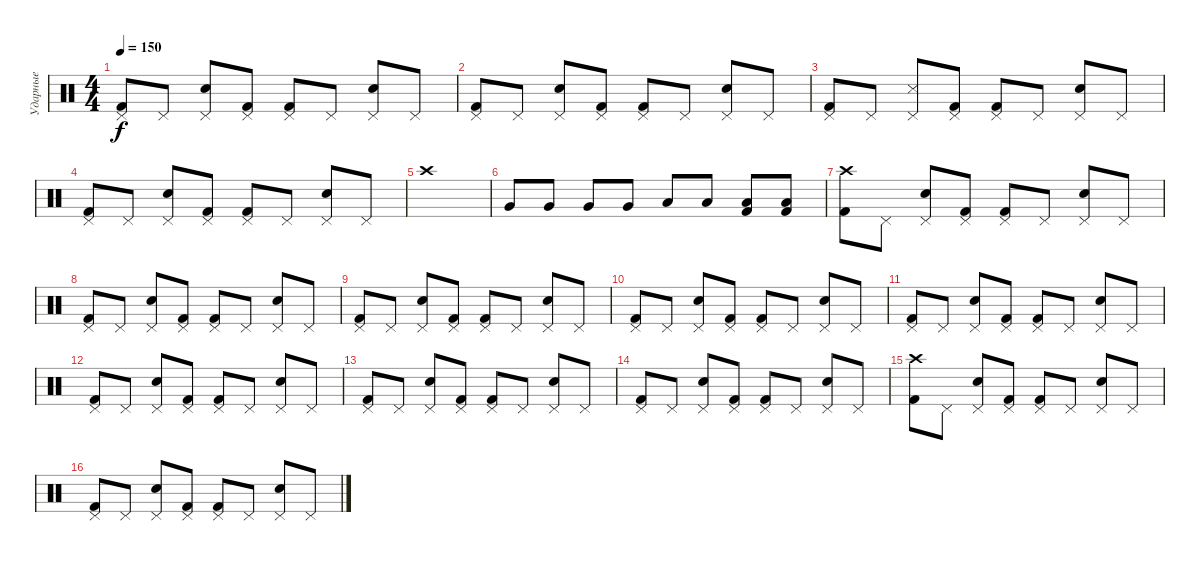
\track ("Ударные" "Ударные") {instrument percussion}
\staff {score}
\articulation defaults
\ts (4 4)
\tempo 150
\clef neutral
\ks c
("Pedal Hi-Hat (hit)" "Kick (hit) 2").8{dy f} "Pedal Hi-Hat (hit)".8 ("Pedal Hi-Hat (hit)" "Snare (hit) 2").8 ("Pedal Hi-Hat (hit)" "Kick (hit) 2").8 ("Pedal Hi-Hat (hit)" "Kick (hit) 2").8 "Pedal Hi-Hat (hit)".8 ("Pedal Hi-Hat (hit)" "Snare (hit) 2").8 "Pedal Hi-Hat (hit)".8 |
("Pedal Hi-Hat (hit)" "Kick (hit) 2").8 "Pedal Hi-Hat (hit)".8 ("Pedal Hi-Hat (hit)" "Snare (hit) 2").8 ("Pedal Hi-Hat (hit)" "Kick (hit) 2").8 ("Pedal Hi-Hat (hit)" "Kick (hit) 2").8 "Pedal Hi-Hat (hit)".8 ("Pedal Hi-Hat (hit)" "Snare (hit) 2").8 "Pedal Hi-Hat (hit)".8 |
("Pedal Hi-Hat (hit)" "Kick (hit) 2").8 "Pedal Hi-Hat (hit)".8 ("Pedal Hi-Hat (hit)" "Snare (side stick) 3").8 ("Pedal Hi-Hat (hit)" "Kick (hit) 2").8 ("Pedal Hi-Hat (hit)" "Kick (hit) 2").8 "Pedal Hi-Hat (hit)".8 ("Pedal Hi-Hat (hit)" "Snare (hit) 2").8 "Pedal Hi-Hat (hit)".8 |
("Pedal Hi-Hat (hit)" "Kick (hit) 2").8 "Pedal Hi-Hat (hit)".8 ("Pedal Hi-Hat (hit)" "Snare (hit) 2").8 ("Pedal Hi-Hat (hit)" "Kick (hit) 2").8 ("Pedal Hi-Hat (hit)" "Kick (hit) 2").8 "Pedal Hi-Hat (hit)".8 ("Pedal Hi-Hat (hit)" "Snare (hit) 2").8 "Pedal Hi-Hat (hit)".8 |
"Crash high (hit)".1 |
"Very Low Tom (hit)".8 "Very Low Tom (hit)".8 "Very Low Tom (hit)".8 "Very Low Tom (hit)".8 "Low Floor Tom (hit)".8 "Low Floor Tom (hit)".8 ("Low Floor Tom (hit)" "Kick (hit) 2").8 ("Low Floor Tom (hit)" "Kick (hit) 2").8 |
("Crash high (hit)" "Kick (hit) 2").8 "Pedal Hi-Hat (hit)".8 ("Pedal Hi-Hat (hit)" "Snare (hit) 2").8 ("Pedal Hi-Hat (hit)" "Kick (hit) 2").8 ("Pedal Hi-Hat (hit)" "Kick (hit) 2").8 "Pedal Hi-Hat (hit)".8 ("Pedal Hi-Hat (hit)" "Snare (hit) 2").8 "Pedal Hi-Hat (hit)".8 |
("Pedal Hi-Hat (hit)" "Kick (hit) 2").8 "Pedal Hi-Hat (hit)".8 ("Pedal Hi-Hat (hit)" "Snare (hit) 2").8 ("Pedal Hi-Hat (hit)" "Kick (hit) 2").8 ("Pedal Hi-Hat (hit)" "Kick (hit) 2").8 "Pedal Hi-Hat (hit)".8 ("Pedal Hi-Hat (hit)" "Snare (hit) 2").8 "Pedal Hi-Hat (hit)".8 |
("Pedal Hi-Hat (hit)" "Kick (hit) 2").8 "Pedal Hi-Hat (hit)".8 ("Pedal Hi-Hat (hit)" "Snare (hit) 2").8 ("Pedal Hi-Hat (hit)" "Kick (hit) 2").8 ("Pedal Hi-Hat (hit)" "Kick (hit) 2").8 "Pedal Hi-Hat (hit)".8 ("Pedal Hi-Hat (hit)" "Snare (hit) 2").8 "Pedal Hi-Hat (hit)".8 |
("Pedal Hi-Hat (hit)" "Kick (hit) 2").8 "Pedal Hi-Hat (hit)".8 ("Pedal Hi-Hat (hit)" "Snare (hit) 2").8 ("Pedal Hi-Hat (hit)" "Kick (hit) 2").8 ("Pedal Hi-Hat (hit)" "Kick (hit) 2").8 "Pedal Hi-Hat (hit)".8 ("Pedal Hi-Hat (hit)" "Snare (hit) 2").8 "Pedal Hi-Hat (hit)".8 |
("Pedal Hi-Hat (hit)" "Kick (hit) 2").8 "Pedal Hi-Hat (hit)".8 ("Pedal Hi-Hat (hit)" "Snare (hit) 2").8 ("Pedal Hi-Hat (hit)" "Kick (hit) 2").8 ("Pedal Hi-Hat (hit)" "Kick (hit) 2").8 "Pedal Hi-Hat (hit)".8 ("Pedal Hi-Hat (hit)" "Snare (hit) 2").8 "Pedal Hi-Hat (hit)".8 |
("Pedal Hi-Hat (hit)" "Kick (hit) 2").8 "Pedal Hi-Hat (hit)".8 ("Pedal Hi-Hat (hit)" "Snare (hit) 2").8 ("Pedal Hi-Hat (hit)" "Kick (hit) 2").8 ("Pedal Hi-Hat (hit)" "Kick (hit) 2").8 "Pedal Hi-Hat (hit)".8 ("Pedal Hi-Hat (hit)" "Snare (hit) 2").8 "Pedal Hi-Hat (hit)".8 |
("Pedal Hi-Hat (hit)" "Kick (hit) 2").8 "Pedal Hi-Hat (hit)".8 ("Pedal Hi-Hat (hit)" "Snare (hit) 2").8 ("Pedal Hi-Hat (hit)" "Kick (hit) 2").8 ("Pedal Hi-Hat (hit)" "Kick (hit) 2").8 "Pedal Hi-Hat (hit)".8 ("Pedal Hi-Hat (hit)" "Snare (hit) 2").8 "Pedal Hi-Hat (hit)".8 |
("Pedal Hi-Hat (hit)" "Kick (hit) 2").8 "Pedal Hi-Hat (hit)".8 ("Pedal Hi-Hat (hit)" "Snare (hit) 2").8 ("Pedal Hi-Hat (hit)" "Kick (hit) 2").8 ("Pedal Hi-Hat (hit)" "Kick (hit) 2").8 "Pedal Hi-Hat (hit)".8 ("Pedal Hi-Hat (hit)" "Snare (hit) 2").8 "Pedal Hi-Hat (hit)".8 |
("Crash high (hit)" "Kick (hit) 2").8 "Pedal Hi-Hat (hit)".8 ("Pedal Hi-Hat (hit)" "Snare (hit) 2").8 ("Pedal Hi-Hat (hit)" "Kick (hit) 2").8 ("Pedal Hi-Hat (hit)" "Kick (hit) 2").8 "Pedal Hi-Hat (hit)".8 ("Pedal Hi-Hat (hit)" "Snare (hit) 2").8 "Pedal Hi-Hat (hit)".8 |
("Pedal Hi-Hat (hit)" "Kick (hit) 2").8 "Pedal Hi-Hat (hit)".8 ("Pedal Hi-Hat (hit)" "Snare (hit) 2").8 ("Pedal Hi-Hat (hit)" "Kick (hit) 2").8 ("Pedal Hi-Hat (hit)" "Kick (hit) 2").8 "Pedal Hi-Hat (hit)".8 ("Pedal Hi-Hat (hit)" "Snare (hit) 2").8 "Pedal Hi-Hat (hit)".8
